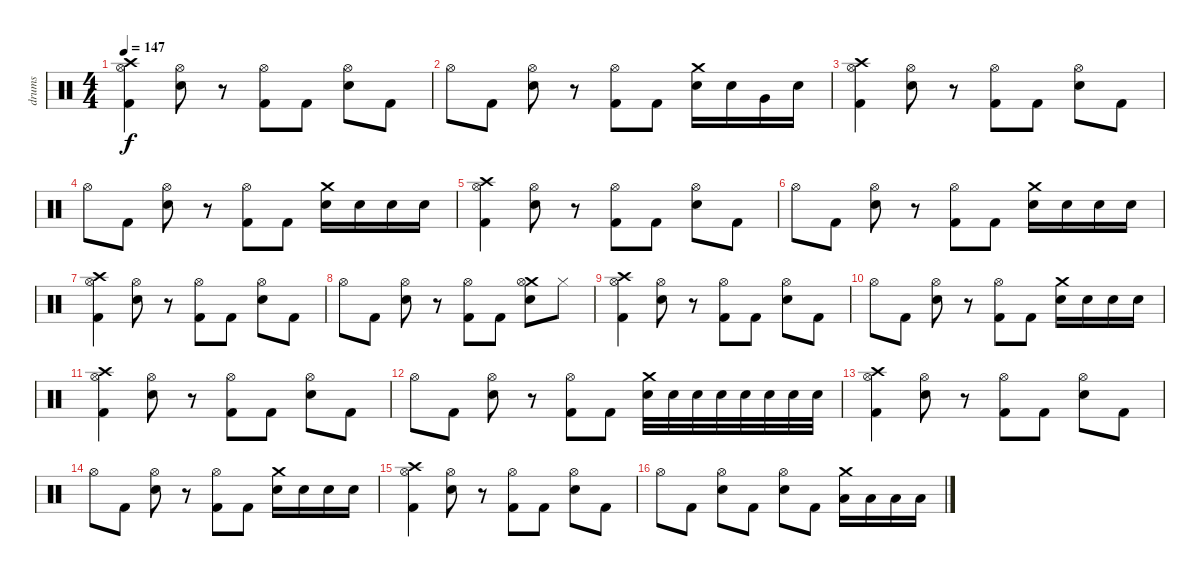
\track ("drums" "drums") {instrument percussion}
\staff {score}
\articulation defaults
\ts (4 4)
\tempo 147
\clef neutral
\ks c
("Crash high (hit)" "Hi-Hat (open)" "Kick (hit) 2").4{dy f} ("Hi-Hat (open)" "Electric Snare (hit)").8 r.8 ("Hi-Hat (open)" "Kick (hit) 2").8 "Kick (hit) 2".8 ("Hi-Hat (open)" "Electric Snare (hit)").8 "Kick (hit) 2".8 |
"Hi-Hat (open)".8 "Kick (hit) 2".8 ("Hi-Hat (open)" "Electric Snare (hit)").8 r.8 ("Hi-Hat (open)" "Kick (hit) 2").8 "Kick (hit) 2".8 ("Crash medium (hit)" "Electric Snare (hit)").16 "Electric Snare (hit)".16 "Very Low Tom (hit)".16 "Electric Snare (hit)".16 |
("Crash high (hit)" "Hi-Hat (open)" "Kick (hit) 2").4 ("Hi-Hat (open)" "Electric Snare (hit)").8 r.8 ("Hi-Hat (open)" "Kick (hit) 2").8 "Kick (hit) 2".8 ("Hi-Hat (open)" "Electric Snare (hit)").8 "Kick (hit) 2".8 |
"Hi-Hat (open)".8 "Kick (hit) 2".8 ("Hi-Hat (open)" "Electric Snare (hit)").8 r.8 ("Hi-Hat (open)" "Kick (hit) 2").8 "Kick (hit) 2".8 ("Crash medium (hit)" "Electric Snare (hit)").16 "Electric Snare (hit)".16 "Electric Snare (hit)".16 "Electric Snare (hit)".16 |
("Crash high (hit)" "Hi-Hat (open)" "Kick (hit) 2").4 ("Hi-Hat (open)" "Electric Snare (hit)").8 r.8 ("Hi-Hat (open)" "Kick (hit) 2").8 "Kick (hit) 2".8 ("Hi-Hat (open)" "Electric Snare (hit)").8 "Kick (hit) 2".8 |
"Hi-Hat (open)".8 "Kick (hit) 2".8 ("Hi-Hat (open)" "Electric Snare (hit)").8 r.8 ("Hi-Hat (open)" "Kick (hit) 2").8 "Kick (hit) 2".8 ("Crash medium (hit)" "Electric Snare (hit)").16 "Electric Snare (hit)".16 "Electric Snare (hit)".16 "Electric Snare (hit)".16 |
("Crash high (hit)" "Hi-Hat (open)" "Kick (hit) 2").4 ("Hi-Hat (open)" "Electric Snare (hit)").8 r.8 ("Hi-Hat (open)" "Kick (hit) 2").8 "Kick (hit) 2".8 ("Hi-Hat (open)" "Electric Snare (hit)").8 "Kick (hit) 2".8 |
"Hi-Hat (open)".8 "Kick (hit) 2".8 ("Hi-Hat (open)" "Electric Snare (hit)").8 r.8 ("Hi-Hat (open)" "Kick (hit) 2").8 "Kick (hit) 2".8 ("Crash medium (hit)" "Hi-Hat (open)" "Electric Snare (hit)").8 "Hi-Hat (closed)".8 |
("Crash high (hit)" "Hi-Hat (open)" "Kick (hit) 2").4 ("Hi-Hat (open)" "Electric Snare (hit)").8 r.8 ("Hi-Hat (open)" "Kick (hit) 2").8 "Kick (hit) 2".8 ("Hi-Hat (open)" "Electric Snare (hit)").8 "Kick (hit) 2".8 |
"Hi-Hat (open)".8 "Kick (hit) 2".8 ("Hi-Hat (open)" "Electric Snare (hit)").8 r.8 ("Hi-Hat (open)" "Kick (hit) 2").8 "Kick (hit) 2".8 ("Crash medium (hit)" "Electric Snare (hit)").16 "Electric Snare (hit)".16 "Electric Snare (hit)".16 "Electric Snare (hit)".16 |
("Crash high (hit)" "Hi-Hat (open)" "Kick (hit) 2").4 ("Hi-Hat (open)" "Electric Snare (hit)").8 r.8 ("Hi-Hat (open)" "Kick (hit) 2").8 "Kick (hit) 2".8 ("Hi-Hat (open)" "Electric Snare (hit)").8 "Kick (hit) 2".8 |
"Hi-Hat (open)".8 "Kick (hit) 2".8 ("Hi-Hat (open)" "Electric Snare (hit)").8 r.8 ("Hi-Hat (open)" "Kick (hit) 2").8 "Kick (hit) 2".8 ("Crash medium (hit)" "Electric Snare (hit)").32 "Electric Snare (hit)".32 "Electric Snare (hit)".32 "Electric Snare (hit)".32 "Electric Snare (hit)".32 "Electric Snare (hit)".32 "Electric Snare (hit)".32 "Electric Snare (hit)".32 |
("Crash high (hit)" "Hi-Hat (open)" "Kick (hit) 2").4 ("Hi-Hat (open)" "Electric Snare (hit)").8 r.8 ("Hi-Hat (open)" "Kick (hit) 2").8 "Kick (hit) 2".8 ("Hi-Hat (open)" "Electric Snare (hit)").8 "Kick (hit) 2".8 |
"Hi-Hat (open)".8 "Kick (hit) 2".8 ("Hi-Hat (open)" "Electric Snare (hit)").8 r.8 ("Hi-Hat (open)" "Kick (hit) 2").8 "Kick (hit) 2".8 ("Crash medium (hit)" "Electric Snare (hit)").16 "Electric Snare (hit)".16 "Electric Snare (hit)".16 "Electric Snare (hit)".16 |
("Crash high (hit)" "Hi-Hat (open)" "Kick (hit) 2").4 ("Hi-Hat (open)" "Electric Snare (hit)").8 r.8 ("Hi-Hat (open)" "Kick (hit) 2").8 "Kick (hit) 2".8 ("Hi-Hat (open)" "Electric Snare (hit)").8 "Kick (hit) 2".8 |
"Hi-Hat (open)".8 "Kick (hit) 2".8 ("Hi-Hat (open)" "Electric Snare (hit)").8 "Kick (hit) 2".8 ("Hi-Hat (open)" "Electric Snare (hit)").8 "Kick (hit) 2".8 ("Crash medium (hit)" "Low Floor Tom (hit)").16 "Low Floor Tom (hit)".16 "Low Floor Tom (hit)".16 "Low Floor Tom (hit)".16
